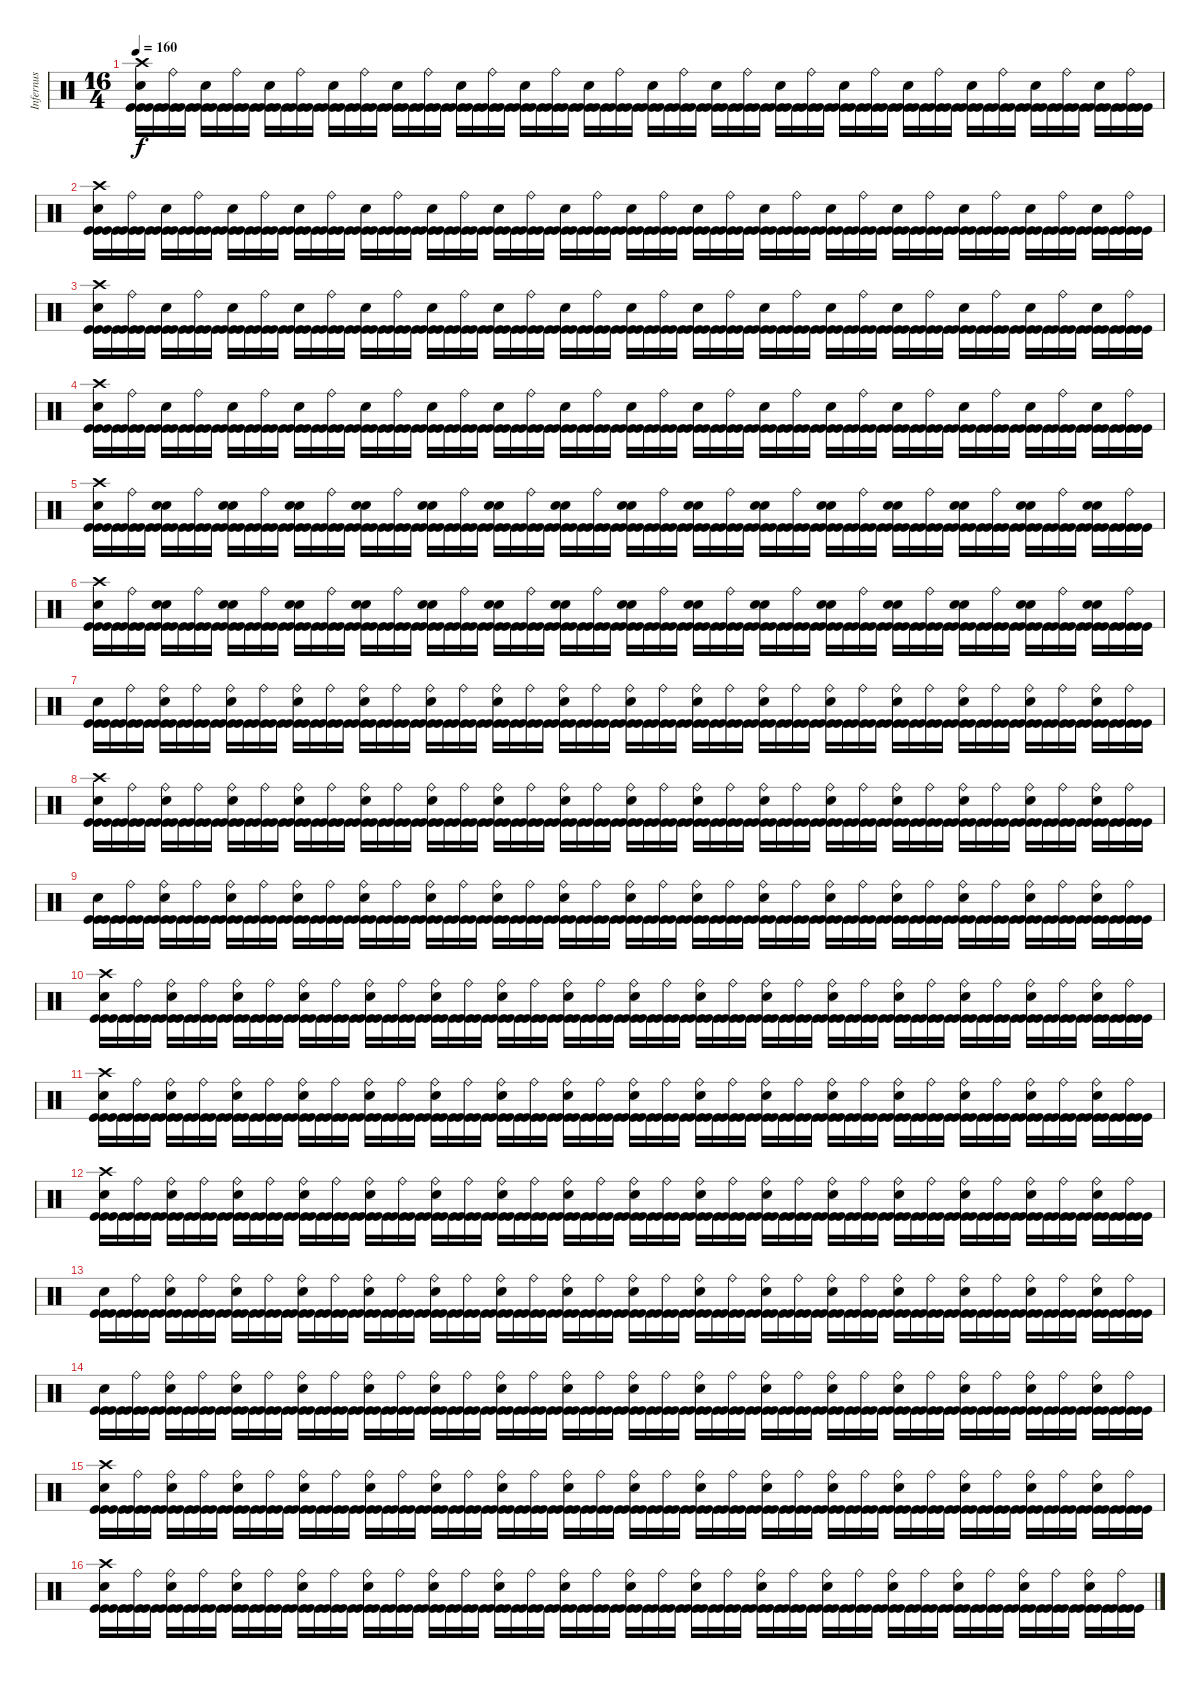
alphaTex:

\track ("Infernus" "Infernus") {instrument percussion}
\staff {score}
\articulation defaults
\ts (16 4)
\tempo 160
\clef neutral
\ks c
("Crash high (hit)" "Snare (hit) 2" "Kick (hit)" "Kick (hit)").16{dy f} ("Kick (hit)" "Kick (hit)").16 ("Ride (bell)" "Kick (hit)" "Kick (hit)").16 ("Kick (hit)" "Kick (hit)").16 ("Snare (hit) 2" "Kick (hit)" "Kick (hit)").16 ("Kick (hit)" "Kick (hit)").16 ("Ride (bell)" "Kick (hit)" "Kick (hit)").16 ("Kick (hit)" "Kick (hit)").16 ("Snare (hit) 2" "Kick (hit)" "Kick (hit)").16 ("Kick (hit)" "Kick (hit)").16 ("Ride (bell)" "Kick (hit)" "Kick (hit)").16 ("Kick (hit)" "Kick (hit)").16 ("Snare (hit) 2" "Kick (hit)" "Kick (hit)").16 ("Kick (hit)" "Kick (hit)").16 ("Ride (bell)" "Kick (hit)" "Kick (hit)").16 ("Kick (hit)" "Kick (hit)").16 ("Snare (hit) 2" "Kick (hit)" "Kick (hit)").16 ("Kick (hit)" "Kick (hit)").16 ("Ride (bell)" "Kick (hit)" "Kick (hit)").16 ("Kick (hit)" "Kick (hit)").16 ("Snare (hit) 2" "Kick (hit)" "Kick (hit)").16 ("Kick (hit)" "Kick (hit)").16 ("Ride (bell)" "Kick (hit)" "Kick (hit)").16 ("Kick (hit)" "Kick (hit)").16 ("Snare (hit) 2" "Kick (hit)" "Kick (hit)").16 ("Kick (hit)" "Kick (hit)").16 ("Ride (bell)" "Kick (hit)" "Kick (hit)").16 ("Kick (hit)" "Kick (hit)").16 ("Snare (hit) 2" "Kick (hit)" "Kick (hit)").16 ("Kick (hit)" "Kick (hit)").16 ("Ride (bell)" "Kick (hit)" "Kick (hit)").16 ("Kick (hit)" "Kick (hit)").16 ("Snare (hit) 2" "Kick (hit)" "Kick (hit)").16 ("Kick (hit)" "Kick (hit)").16 ("Ride (bell)" "Kick (hit)" "Kick (hit)").16 ("Kick (hit)" "Kick (hit)").16 ("Snare (hit) 2" "Kick (hit)" "Kick (hit)").16 ("Kick (hit)" "Kick (hit)").16 ("Ride (bell)" "Kick (hit)" "Kick (hit)").16 ("Kick (hit)" "Kick (hit)").16 ("Snare (hit) 2" "Kick (hit)" "Kick (hit)").16 ("Kick (hit)" "Kick (hit)").16 ("Ride (bell)" "Kick (hit)" "Kick (hit)").16 ("Kick (hit)" "Kick (hit)").16 ("Snare (hit) 2" "Kick (hit)" "Kick (hit)").16 ("Kick (hit)" "Kick (hit)").16 ("Ride (bell)" "Kick (hit)" "Kick (hit)").16 ("Kick (hit)" "Kick (hit)").16 ("Snare (hit) 2" "Kick (hit)" "Kick (hit)").16 ("Kick (hit)" "Kick (hit)").16 ("Ride (bell)" "Kick (hit)" "Kick (hit)").16 ("Kick (hit)" "Kick (hit)").16 ("Snare (hit) 2" "Kick (hit)" "Kick (hit)").16 ("Kick (hit)" "Kick (hit)").16 ("Ride (bell)" "Kick (hit)" "Kick (hit)").16 ("Kick (hit)" "Kick (hit)").16 ("Snare (hit) 2" "Kick (hit)" "Kick (hit)").16 ("Kick (hit)" "Kick (hit)").16 ("Ride (bell)" "Kick (hit)" "Kick (hit)").16 ("Kick (hit)" "Kick (hit)").16 ("Snare (hit) 2" "Kick (hit)" "Kick (hit)").16 ("Kick (hit)" "Kick (hit)").16 ("Ride (bell)" "Kick (hit)" "Kick (hit)").16 ("Kick (hit)" "Kick (hit)").16 |
("Crash high (hit)" "Snare (hit) 2" "Kick (hit)" "Kick (hit)").16 ("Kick (hit)" "Kick (hit)").16 ("Ride (bell)" "Kick (hit)" "Kick (hit)").16 ("Kick (hit)" "Kick (hit)").16 ("Snare (hit) 2" "Kick (hit)" "Kick (hit)").16 ("Kick (hit)" "Kick (hit)").16 ("Ride (bell)" "Kick (hit)" "Kick (hit)").16 ("Kick (hit)" "Kick (hit)").16 ("Snare (hit) 2" "Kick (hit)" "Kick (hit)").16 ("Kick (hit)" "Kick (hit)").16 ("Ride (bell)" "Kick (hit)" "Kick (hit)").16 ("Kick (hit)" "Kick (hit)").16 ("Snare (hit) 2" "Kick (hit)" "Kick (hit)").16 ("Kick (hit)" "Kick (hit)").16 ("Ride (bell)" "Kick (hit)" "Kick (hit)").16 ("Kick (hit)" "Kick (hit)").16 ("Snare (hit) 2" "Kick (hit)" "Kick (hit)").16 ("Kick (hit)" "Kick (hit)").16 ("Ride (bell)" "Kick (hit)" "Kick (hit)").16 ("Kick (hit)" "Kick (hit)").16 ("Snare (hit) 2" "Kick (hit)" "Kick (hit)").16 ("Kick (hit)" "Kick (hit)").16 ("Ride (bell)" "Kick (hit)" "Kick (hit)").16 ("Kick (hit)" "Kick (hit)").16 ("Snare (hit) 2" "Kick (hit)" "Kick (hit)").16 ("Kick (hit)" "Kick (hit)").16 ("Ride (bell)" "Kick (hit)" "Kick (hit)").16 ("Kick (hit)" "Kick (hit)").16 ("Snare (hit) 2" "Kick (hit)" "Kick (hit)").16 ("Kick (hit)" "Kick (hit)").16 ("Ride (bell)" "Kick (hit)" "Kick (hit)").16 ("Kick (hit)" "Kick (hit)").16 ("Snare (hit) 2" "Kick (hit)" "Kick (hit)").16 ("Kick (hit)" "Kick (hit)").16 ("Ride (bell)" "Kick (hit)" "Kick (hit)").16 ("Kick (hit)" "Kick (hit)").16 ("Snare (hit) 2" "Kick (hit)" "Kick (hit)").16 ("Kick (hit)" "Kick (hit)").16 ("Ride (bell)" "Kick (hit)" "Kick (hit)").16 ("Kick (hit)" "Kick (hit)").16 ("Snare (hit) 2" "Kick (hit)" "Kick (hit)").16 ("Kick (hit)" "Kick (hit)").16 ("Ride (bell)" "Kick (hit)" "Kick (hit)").16 ("Kick (hit)" "Kick (hit)").16 ("Snare (hit) 2" "Kick (hit)" "Kick (hit)").16 ("Kick (hit)" "Kick (hit)").16 ("Ride (bell)" "Kick (hit)" "Kick (hit)").16 ("Kick (hit)" "Kick (hit)").16 ("Snare (hit) 2" "Kick (hit)" "Kick (hit)").16 ("Kick (hit)" "Kick (hit)").16 ("Ride (bell)" "Kick (hit)" "Kick (hit)").16 ("Kick (hit)" "Kick (hit)").16 ("Snare (hit) 2" "Kick (hit)" "Kick (hit)").16 ("Kick (hit)" "Kick (hit)").16 ("Ride (bell)" "Kick (hit)" "Kick (hit)").16 ("Kick (hit)" "Kick (hit)").16 ("Snare (hit) 2" "Kick (hit)" "Kick (hit)").16 ("Kick (hit)" "Kick (hit)").16 ("Ride (bell)" "Kick (hit)" "Kick (hit)").16 ("Kick (hit)" "Kick (hit)").16 ("Snare (hit) 2" "Kick (hit)" "Kick (hit)").16 ("Kick (hit)" "Kick (hit)").16 ("Ride (bell)" "Kick (hit)" "Kick (hit)").16 ("Kick (hit)" "Kick (hit)").16 |
("Crash high (hit)" "Snare (hit) 2" "Kick (hit)" "Kick (hit)").16 ("Kick (hit)" "Kick (hit)").16 ("Ride (bell)" "Kick (hit)" "Kick (hit)").16 ("Kick (hit)" "Kick (hit)").16 ("Snare (hit) 2" "Kick (hit)" "Kick (hit)").16 ("Kick (hit)" "Kick (hit)").16 ("Ride (bell)" "Kick (hit)" "Kick (hit)").16 ("Kick (hit)" "Kick (hit)").16 ("Snare (hit) 2" "Kick (hit)" "Kick (hit)").16 ("Kick (hit)" "Kick (hit)").16 ("Ride (bell)" "Kick (hit)" "Kick (hit)").16 ("Kick (hit)" "Kick (hit)").16 ("Snare (hit) 2" "Kick (hit)" "Kick (hit)").16 ("Kick (hit)" "Kick (hit)").16 ("Ride (bell)" "Kick (hit)" "Kick (hit)").16 ("Kick (hit)" "Kick (hit)").16 ("Snare (hit) 2" "Kick (hit)" "Kick (hit)").16 ("Kick (hit)" "Kick (hit)").16 ("Ride (bell)" "Kick (hit)" "Kick (hit)").16 ("Kick (hit)" "Kick (hit)").16 ("Snare (hit) 2" "Kick (hit)" "Kick (hit)").16 ("Kick (hit)" "Kick (hit)").16 ("Ride (bell)" "Kick (hit)" "Kick (hit)").16 ("Kick (hit)" "Kick (hit)").16 ("Snare (hit) 2" "Kick (hit)" "Kick (hit)").16 ("Kick (hit)" "Kick (hit)").16 ("Ride (bell)" "Kick (hit)" "Kick (hit)").16 ("Kick (hit)" "Kick (hit)").16 ("Snare (hit) 2" "Kick (hit)" "Kick (hit)").16 ("Kick (hit)" "Kick (hit)").16 ("Ride (bell)" "Kick (hit)" "Kick (hit)").16 ("Kick (hit)" "Kick (hit)").16 ("Snare (hit) 2" "Kick (hit)" "Kick (hit)").16 ("Kick (hit)" "Kick (hit)").16 ("Ride (bell)" "Kick (hit)" "Kick (hit)").16 ("Kick (hit)" "Kick (hit)").16 ("Snare (hit) 2" "Kick (hit)" "Kick (hit)").16 ("Kick (hit)" "Kick (hit)").16 ("Ride (bell)" "Kick (hit)" "Kick (hit)").16 ("Kick (hit)" "Kick (hit)").16 ("Snare (hit) 2" "Kick (hit)" "Kick (hit)").16 ("Kick (hit)" "Kick (hit)").16 ("Ride (bell)" "Kick (hit)" "Kick (hit)").16 ("Kick (hit)" "Kick (hit)").16 ("Snare (hit) 2" "Kick (hit)" "Kick (hit)").16 ("Kick (hit)" "Kick (hit)").16 ("Ride (bell)" "Kick (hit)" "Kick (hit)").16 ("Kick (hit)" "Kick (hit)").16 ("Snare (hit) 2" "Kick (hit)" "Kick (hit)").16 ("Kick (hit)" "Kick (hit)").16 ("Ride (bell)" "Kick (hit)" "Kick (hit)").16 ("Kick (hit)" "Kick (hit)").16 ("Snare (hit) 2" "Kick (hit)" "Kick (hit)").16 ("Kick (hit)" "Kick (hit)").16 ("Ride (bell)" "Kick (hit)" "Kick (hit)").16 ("Kick (hit)" "Kick (hit)").16 ("Snare (hit) 2" "Kick (hit)" "Kick (hit)").16 ("Kick (hit)" "Kick (hit)").16 ("Ride (bell)" "Kick (hit)" "Kick (hit)").16 ("Kick (hit)" "Kick (hit)").16 ("Snare (hit) 2" "Kick (hit)" "Kick (hit)").16 ("Kick (hit)" "Kick (hit)").16 ("Ride (bell)" "Kick (hit)" "Kick (hit)").16 ("Kick (hit)" "Kick (hit)").16 |
("Crash high (hit)" "Snare (hit) 2" "Kick (hit)" "Kick (hit)").16 ("Kick (hit)" "Kick (hit)").16 ("Ride (bell)" "Kick (hit)" "Kick (hit)").16 ("Kick (hit)" "Kick (hit)").16 ("Snare (hit) 2" "Kick (hit)" "Kick (hit)").16 ("Kick (hit)" "Kick (hit)").16 ("Ride (bell)" "Kick (hit)" "Kick (hit)").16 ("Kick (hit)" "Kick (hit)").16 ("Snare (hit) 2" "Kick (hit)" "Kick (hit)").16 ("Kick (hit)" "Kick (hit)").16 ("Ride (bell)" "Kick (hit)" "Kick (hit)").16 ("Kick (hit)" "Kick (hit)").16 ("Snare (hit) 2" "Kick (hit)" "Kick (hit)").16 ("Kick (hit)" "Kick (hit)").16 ("Ride (bell)" "Kick (hit)" "Kick (hit)").16 ("Kick (hit)" "Kick (hit)").16 ("Snare (hit) 2" "Kick (hit)" "Kick (hit)").16 ("Kick (hit)" "Kick (hit)").16 ("Ride (bell)" "Kick (hit)" "Kick (hit)").16 ("Kick (hit)" "Kick (hit)").16 ("Snare (hit) 2" "Kick (hit)" "Kick (hit)").16 ("Kick (hit)" "Kick (hit)").16 ("Ride (bell)" "Kick (hit)" "Kick (hit)").16 ("Kick (hit)" "Kick (hit)").16 ("Snare (hit) 2" "Kick (hit)" "Kick (hit)").16 ("Kick (hit)" "Kick (hit)").16 ("Ride (bell)" "Kick (hit)" "Kick (hit)").16 ("Kick (hit)" "Kick (hit)").16 ("Snare (hit) 2" "Kick (hit)" "Kick (hit)").16 ("Kick (hit)" "Kick (hit)").16 ("Ride (bell)" "Kick (hit)" "Kick (hit)").16 ("Kick (hit)" "Kick (hit)").16 ("Snare (hit) 2" "Kick (hit)" "Kick (hit)").16 ("Kick (hit)" "Kick (hit)").16 ("Ride (bell)" "Kick (hit)" "Kick (hit)").16 ("Kick (hit)" "Kick (hit)").16 ("Snare (hit) 2" "Kick (hit)" "Kick (hit)").16 ("Kick (hit)" "Kick (hit)").16 ("Ride (bell)" "Kick (hit)" "Kick (hit)").16 ("Kick (hit)" "Kick (hit)").16 ("Snare (hit) 2" "Kick (hit)" "Kick (hit)").16 ("Kick (hit)" "Kick (hit)").16 ("Ride (bell)" "Kick (hit)" "Kick (hit)").16 ("Kick (hit)" "Kick (hit)").16 ("Snare (hit) 2" "Kick (hit)" "Kick (hit)").16 ("Kick (hit)" "Kick (hit)").16 ("Ride (bell)" "Kick (hit)" "Kick (hit)").16 ("Kick (hit)" "Kick (hit)").16 ("Snare (hit) 2" "Kick (hit)" "Kick (hit)").16 ("Kick (hit)" "Kick (hit)").16 ("Ride (bell)" "Kick (hit)" "Kick (hit)").16 ("Kick (hit)" "Kick (hit)").16 ("Snare (hit) 2" "Kick (hit)" "Kick (hit)").16 ("Kick (hit)" "Kick (hit)").16 ("Ride (bell)" "Kick (hit)" "Kick (hit)").16 ("Kick (hit)" "Kick (hit)").16 ("Snare (hit) 2" "Kick (hit)" "Kick (hit)").16 ("Kick (hit)" "Kick (hit)").16 ("Ride (bell)" "Kick (hit)" "Kick (hit)").16 ("Kick (hit)" "Kick (hit)").16 ("Snare (hit) 2" "Kick (hit)" "Kick (hit)").16 ("Kick (hit)" "Kick (hit)").16 ("Ride (bell)" "Kick (hit)" "Kick (hit)").16 ("Kick (hit)" "Kick (hit)").16 |
("Crash high (hit)" "Snare (hit) 2" "Kick (hit)" "Kick (hit)").16 ("Kick (hit)" "Kick (hit)").16 ("Ride (bell)" "Kick (hit)" "Kick (hit)").16 ("Kick (hit)" "Kick (hit)").16 ("Snare (hit) 2" "Snare (hit) 2" "Kick (hit)" "Kick (hit)").16 ("Kick (hit)" "Kick (hit)").16 ("Ride (bell)" "Kick (hit)" "Kick (hit)").16 ("Kick (hit)" "Kick (hit)").16 ("Snare (hit) 2" "Snare (hit) 2" "Kick (hit)" "Kick (hit)").16 ("Kick (hit)" "Kick (hit)").16 ("Ride (bell)" "Kick (hit)" "Kick (hit)").16 ("Kick (hit)" "Kick (hit)").16 ("Snare (hit) 2" "Snare (hit) 2" "Kick (hit)" "Kick (hit)").16 ("Kick (hit)" "Kick (hit)").16 ("Ride (bell)" "Kick (hit)" "Kick (hit)").16 ("Kick (hit)" "Kick (hit)").16 ("Snare (hit) 2" "Snare (hit) 2" "Kick (hit)" "Kick (hit)").16 ("Kick (hit)" "Kick (hit)").16 ("Ride (bell)" "Kick (hit)" "Kick (hit)").16 ("Kick (hit)" "Kick (hit)").16 ("Snare (hit) 2" "Snare (hit) 2" "Kick (hit)" "Kick (hit)").16 ("Kick (hit)" "Kick (hit)").16 ("Ride (bell)" "Kick (hit)" "Kick (hit)").16 ("Kick (hit)" "Kick (hit)").16 ("Snare (hit) 2" "Snare (hit) 2" "Kick (hit)" "Kick (hit)").16 ("Kick (hit)" "Kick (hit)").16 ("Ride (bell)" "Kick (hit)" "Kick (hit)").16 ("Kick (hit)" "Kick (hit)").16 ("Snare (hit) 2" "Snare (hit) 2" "Kick (hit)" "Kick (hit)").16 ("Kick (hit)" "Kick (hit)").16 ("Ride (bell)" "Kick (hit)" "Kick (hit)").16 ("Kick (hit)" "Kick (hit)").16 ("Snare (hit) 2" "Snare (hit) 2" "Kick (hit)" "Kick (hit)").16 ("Kick (hit)" "Kick (hit)").16 ("Ride (bell)" "Kick (hit)" "Kick (hit)").16 ("Kick (hit)" "Kick (hit)").16 ("Snare (hit) 2" "Snare (hit) 2" "Kick (hit)" "Kick (hit)").16 ("Kick (hit)" "Kick (hit)").16 ("Ride (bell)" "Kick (hit)" "Kick (hit)").16 ("Kick (hit)" "Kick (hit)").16 ("Snare (hit) 2" "Snare (hit) 2" "Kick (hit)" "Kick (hit)").16 ("Kick (hit)" "Kick (hit)").16 ("Ride (bell)" "Kick (hit)" "Kick (hit)").16 ("Kick (hit)" "Kick (hit)").16 ("Snare (hit) 2" "Snare (hit) 2" "Kick (hit)" "Kick (hit)").16 ("Kick (hit)" "Kick (hit)").16 ("Ride (bell)" "Kick (hit)" "Kick (hit)").16 ("Kick (hit)" "Kick (hit)").16 ("Snare (hit) 2" "Snare (hit) 2" "Kick (hit)" "Kick (hit)").16 ("Kick (hit)" "Kick (hit)").16 ("Ride (bell)" "Kick (hit)" "Kick (hit)").16 ("Kick (hit)" "Kick (hit)").16 ("Snare (hit) 2" "Snare (hit) 2" "Kick (hit)" "Kick (hit)").16 ("Kick (hit)" "Kick (hit)").16 ("Ride (bell)" "Kick (hit)" "Kick (hit)").16 ("Kick (hit)" "Kick (hit)").16 ("Snare (hit) 2" "Snare (hit) 2" "Kick (hit)" "Kick (hit)").16 ("Kick (hit)" "Kick (hit)").16 ("Ride (bell)" "Kick (hit)" "Kick (hit)").16 ("Kick (hit)" "Kick (hit)").16 ("Snare (hit) 2" "Snare (hit) 2" "Kick (hit)" "Kick (hit)").16 ("Kick (hit)" "Kick (hit)").16 ("Ride (bell)" "Kick (hit)" "Kick (hit)").16 ("Kick (hit)" "Kick (hit)").16 |
("Crash high (hit)" "Snare (hit) 2" "Kick (hit)" "Kick (hit)").16 ("Kick (hit)" "Kick (hit)").16 ("Ride (bell)" "Kick (hit)" "Kick (hit)").16 ("Kick (hit)" "Kick (hit)").16 ("Snare (hit) 2" "Snare (hit) 2" "Kick (hit)" "Kick (hit)").16 ("Kick (hit)" "Kick (hit)").16 ("Ride (bell)" "Kick (hit)" "Kick (hit)").16 ("Kick (hit)" "Kick (hit)").16 ("Snare (hit) 2" "Snare (hit) 2" "Kick (hit)" "Kick (hit)").16 ("Kick (hit)" "Kick (hit)").16 ("Ride (bell)" "Kick (hit)" "Kick (hit)").16 ("Kick (hit)" "Kick (hit)").16 ("Snare (hit) 2" "Snare (hit) 2" "Kick (hit)" "Kick (hit)").16 ("Kick (hit)" "Kick (hit)").16 ("Ride (bell)" "Kick (hit)" "Kick (hit)").16 ("Kick (hit)" "Kick (hit)").16 ("Snare (hit) 2" "Snare (hit) 2" "Kick (hit)" "Kick (hit)").16 ("Kick (hit)" "Kick (hit)").16 ("Ride (bell)" "Kick (hit)" "Kick (hit)").16 ("Kick (hit)" "Kick (hit)").16 ("Snare (hit) 2" "Snare (hit) 2" "Kick (hit)" "Kick (hit)").16 ("Kick (hit)" "Kick (hit)").16 ("Ride (bell)" "Kick (hit)" "Kick (hit)").16 ("Kick (hit)" "Kick (hit)").16 ("Snare (hit) 2" "Snare (hit) 2" "Kick (hit)" "Kick (hit)").16 ("Kick (hit)" "Kick (hit)").16 ("Ride (bell)" "Kick (hit)" "Kick (hit)").16 ("Kick (hit)" "Kick (hit)").16 ("Snare (hit) 2" "Snare (hit) 2" "Kick (hit)" "Kick (hit)").16 ("Kick (hit)" "Kick (hit)").16 ("Ride (bell)" "Kick (hit)" "Kick (hit)").16 ("Kick (hit)" "Kick (hit)").16 ("Snare (hit) 2" "Snare (hit) 2" "Kick (hit)" "Kick (hit)").16 ("Kick (hit)" "Kick (hit)").16 ("Ride (bell)" "Kick (hit)" "Kick (hit)").16 ("Kick (hit)" "Kick (hit)").16 ("Snare (hit) 2" "Snare (hit) 2" "Kick (hit)" "Kick (hit)").16 ("Kick (hit)" "Kick (hit)").16 ("Ride (bell)" "Kick (hit)" "Kick (hit)").16 ("Kick (hit)" "Kick (hit)").16 ("Snare (hit) 2" "Snare (hit) 2" "Kick (hit)" "Kick (hit)").16 ("Kick (hit)" "Kick (hit)").16 ("Ride (bell)" "Kick (hit)" "Kick (hit)").16 ("Kick (hit)" "Kick (hit)").16 ("Snare (hit) 2" "Snare (hit) 2" "Kick (hit)" "Kick (hit)").16 ("Kick (hit)" "Kick (hit)").16 ("Ride (bell)" "Kick (hit)" "Kick (hit)").16 ("Kick (hit)" "Kick (hit)").16 ("Snare (hit) 2" "Snare (hit) 2" "Kick (hit)" "Kick (hit)").16 ("Kick (hit)" "Kick (hit)").16 ("Ride (bell)" "Kick (hit)" "Kick (hit)").16 ("Kick (hit)" "Kick (hit)").16 ("Snare (hit) 2" "Snare (hit) 2" "Kick (hit)" "Kick (hit)").16 ("Kick (hit)" "Kick (hit)").16 ("Ride (bell)" "Kick (hit)" "Kick (hit)").16 ("Kick (hit)" "Kick (hit)").16 ("Snare (hit) 2" "Snare (hit) 2" "Kick (hit)" "Kick (hit)").16 ("Kick (hit)" "Kick (hit)").16 ("Ride (bell)" "Kick (hit)" "Kick (hit)").16 ("Kick (hit)" "Kick (hit)").16 ("Snare (hit) 2" "Snare (hit) 2" "Kick (hit)" "Kick (hit)").16 ("Kick (hit)" "Kick (hit)").16 ("Ride (bell)" "Kick (hit)" "Kick (hit)").16 ("Kick (hit)" "Kick (hit)").16 |
("Snare (hit) 2" "Kick (hit)" "Kick (hit)").16 ("Kick (hit)" "Kick (hit)").16 ("Ride (bell)" "Kick (hit)" "Kick (hit)").16 ("Kick (hit)" "Kick (hit)").16 ("Ride (bell)" "Snare (hit) 2" "Kick (hit)" "Kick (hit)").16 ("Kick (hit)" "Kick (hit)").16 ("Ride (bell)" "Kick (hit)" "Kick (hit)").16 ("Kick (hit)" "Kick (hit)").16 ("Ride (bell)" "Snare (hit) 2" "Kick (hit)" "Kick (hit)").16 ("Kick (hit)" "Kick (hit)").16 ("Ride (bell)" "Kick (hit)" "Kick (hit)").16 ("Kick (hit)" "Kick (hit)").16 ("Ride (bell)" "Snare (hit) 2" "Kick (hit)" "Kick (hit)").16 ("Kick (hit)" "Kick (hit)").16 ("Ride (bell)" "Kick (hit)" "Kick (hit)").16 ("Kick (hit)" "Kick (hit)").16 ("Ride (bell)" "Snare (hit) 2" "Kick (hit)" "Kick (hit)").16 ("Kick (hit)" "Kick (hit)").16 ("Ride (bell)" "Kick (hit)" "Kick (hit)").16 ("Kick (hit)" "Kick (hit)").16 ("Ride (bell)" "Snare (hit) 2" "Kick (hit)" "Kick (hit)").16 ("Kick (hit)" "Kick (hit)").16 ("Ride (bell)" "Kick (hit)" "Kick (hit)").16 ("Kick (hit)" "Kick (hit)").16 ("Ride (bell)" "Snare (hit) 2" "Kick (hit)" "Kick (hit)").16 ("Kick (hit)" "Kick (hit)").16 ("Ride (bell)" "Kick (hit)" "Kick (hit)").16 ("Kick (hit)" "Kick (hit)").16 ("Ride (bell)" "Snare (hit) 2" "Kick (hit)" "Kick (hit)").16 ("Kick (hit)" "Kick (hit)").16 ("Ride (bell)" "Kick (hit)" "Kick (hit)").16 ("Kick (hit)" "Kick (hit)").16 ("Ride (bell)" "Snare (hit) 2" "Kick (hit)" "Kick (hit)").16 ("Kick (hit)" "Kick (hit)").16 ("Ride (bell)" "Kick (hit)" "Kick (hit)").16 ("Kick (hit)" "Kick (hit)").16 ("Ride (bell)" "Snare (hit) 2" "Kick (hit)" "Kick (hit)").16 ("Kick (hit)" "Kick (hit)").16 ("Ride (bell)" "Kick (hit)" "Kick (hit)").16 ("Kick (hit)" "Kick (hit)").16 ("Ride (bell)" "Snare (hit) 2" "Kick (hit)" "Kick (hit)").16 ("Kick (hit)" "Kick (hit)").16 ("Ride (bell)" "Kick (hit)" "Kick (hit)").16 ("Kick (hit)" "Kick (hit)").16 ("Ride (bell)" "Snare (hit) 2" "Kick (hit)" "Kick (hit)").16 ("Kick (hit)" "Kick (hit)").16 ("Ride (bell)" "Kick (hit)" "Kick (hit)").16 ("Kick (hit)" "Kick (hit)").16 ("Ride (bell)" "Snare (hit) 2" "Kick (hit)" "Kick (hit)").16 ("Kick (hit)" "Kick (hit)").16 ("Ride (bell)" "Kick (hit)" "Kick (hit)").16 ("Kick (hit)" "Kick (hit)").16 ("Ride (bell)" "Snare (hit) 2" "Kick (hit)" "Kick (hit)").16 ("Kick (hit)" "Kick (hit)").16 ("Ride (bell)" "Kick (hit)" "Kick (hit)").16 ("Kick (hit)" "Kick (hit)").16 ("Ride (bell)" "Snare (hit) 2" "Kick (hit)" "Kick (hit)").16 ("Kick (hit)" "Kick (hit)").16 ("Ride (bell)" "Kick (hit)" "Kick (hit)").16 ("Kick (hit)" "Kick (hit)").16 ("Ride (bell)" "Snare (hit) 2" "Kick (hit)" "Kick (hit)").16 ("Kick (hit)" "Kick (hit)").16 ("Ride (bell)" "Kick (hit)" "Kick (hit)").16 ("Kick (hit)" "Kick (hit)").16 |
("Crash high (hit)" "Snare (hit) 2" "Kick (hit)" "Kick (hit)").16 ("Kick (hit)" "Kick (hit)").16 ("Ride (bell)" "Kick (hit)" "Kick (hit)").16 ("Kick (hit)" "Kick (hit)").16 ("Ride (bell)" "Snare (hit) 2" "Kick (hit)" "Kick (hit)").16 ("Kick (hit)" "Kick (hit)").16 ("Ride (bell)" "Kick (hit)" "Kick (hit)").16 ("Kick (hit)" "Kick (hit)").16 ("Ride (bell)" "Snare (hit) 2" "Kick (hit)" "Kick (hit)").16 ("Kick (hit)" "Kick (hit)").16 ("Ride (bell)" "Kick (hit)" "Kick (hit)").16 ("Kick (hit)" "Kick (hit)").16 ("Ride (bell)" "Snare (hit) 2" "Kick (hit)" "Kick (hit)").16 ("Kick (hit)" "Kick (hit)").16 ("Ride (bell)" "Kick (hit)" "Kick (hit)").16 ("Kick (hit)" "Kick (hit)").16 ("Ride (bell)" "Snare (hit) 2" "Kick (hit)" "Kick (hit)").16 ("Kick (hit)" "Kick (hit)").16 ("Ride (bell)" "Kick (hit)" "Kick (hit)").16 ("Kick (hit)" "Kick (hit)").16 ("Ride (bell)" "Snare (hit) 2" "Kick (hit)" "Kick (hit)").16 ("Kick (hit)" "Kick (hit)").16 ("Ride (bell)" "Kick (hit)" "Kick (hit)").16 ("Kick (hit)" "Kick (hit)").16 ("Ride (bell)" "Snare (hit) 2" "Kick (hit)" "Kick (hit)").16 ("Kick (hit)" "Kick (hit)").16 ("Ride (bell)" "Kick (hit)" "Kick (hit)").16 ("Kick (hit)" "Kick (hit)").16 ("Ride (bell)" "Snare (hit) 2" "Kick (hit)" "Kick (hit)").16 ("Kick (hit)" "Kick (hit)").16 ("Ride (bell)" "Kick (hit)" "Kick (hit)").16 ("Kick (hit)" "Kick (hit)").16 ("Ride (bell)" "Snare (hit) 2" "Kick (hit)" "Kick (hit)").16 ("Kick (hit)" "Kick (hit)").16 ("Ride (bell)" "Kick (hit)" "Kick (hit)").16 ("Kick (hit)" "Kick (hit)").16 ("Ride (bell)" "Snare (hit) 2" "Kick (hit)" "Kick (hit)").16 ("Kick (hit)" "Kick (hit)").16 ("Ride (bell)" "Kick (hit)" "Kick (hit)").16 ("Kick (hit)" "Kick (hit)").16 ("Ride (bell)" "Snare (hit) 2" "Kick (hit)" "Kick (hit)").16 ("Kick (hit)" "Kick (hit)").16 ("Ride (bell)" "Kick (hit)" "Kick (hit)").16 ("Kick (hit)" "Kick (hit)").16 ("Ride (bell)" "Snare (hit) 2" "Kick (hit)" "Kick (hit)").16 ("Kick (hit)" "Kick (hit)").16 ("Ride (bell)" "Kick (hit)" "Kick (hit)").16 ("Kick (hit)" "Kick (hit)").16 ("Ride (bell)" "Snare (hit) 2" "Kick (hit)" "Kick (hit)").16 ("Kick (hit)" "Kick (hit)").16 ("Ride (bell)" "Kick (hit)" "Kick (hit)").16 ("Kick (hit)" "Kick (hit)").16 ("Ride (bell)" "Snare (hit) 2" "Kick (hit)" "Kick (hit)").16 ("Kick (hit)" "Kick (hit)").16 ("Ride (bell)" "Kick (hit)" "Kick (hit)").16 ("Kick (hit)" "Kick (hit)").16 ("Ride (bell)" "Snare (hit) 2" "Kick (hit)" "Kick (hit)").16 ("Kick (hit)" "Kick (hit)").16 ("Ride (bell)" "Kick (hit)" "Kick (hit)").16 ("Kick (hit)" "Kick (hit)").16 ("Ride (bell)" "Snare (hit) 2" "Kick (hit)" "Kick (hit)").16 ("Kick (hit)" "Kick (hit)").16 ("Ride (bell)" "Kick (hit)" "Kick (hit)").16 ("Kick (hit)" "Kick (hit)").16 |
("Snare (hit) 2" "Kick (hit)" "Kick (hit)").16 ("Kick (hit)" "Kick (hit)").16 ("Ride (bell)" "Kick (hit)" "Kick (hit)").16 ("Kick (hit)" "Kick (hit)").16 ("Ride (bell)" "Snare (hit) 2" "Kick (hit)" "Kick (hit)").16 ("Kick (hit)" "Kick (hit)").16 ("Ride (bell)" "Kick (hit)" "Kick (hit)").16 ("Kick (hit)" "Kick (hit)").16 ("Ride (bell)" "Snare (hit) 2" "Kick (hit)" "Kick (hit)").16 ("Kick (hit)" "Kick (hit)").16 ("Ride (bell)" "Kick (hit)" "Kick (hit)").16 ("Kick (hit)" "Kick (hit)").16 ("Ride (bell)" "Snare (hit) 2" "Kick (hit)" "Kick (hit)").16 ("Kick (hit)" "Kick (hit)").16 ("Ride (bell)" "Kick (hit)" "Kick (hit)").16 ("Kick (hit)" "Kick (hit)").16 ("Ride (bell)" "Snare (hit) 2" "Kick (hit)" "Kick (hit)").16 ("Kick (hit)" "Kick (hit)").16 ("Ride (bell)" "Kick (hit)" "Kick (hit)").16 ("Kick (hit)" "Kick (hit)").16 ("Ride (bell)" "Snare (hit) 2" "Kick (hit)" "Kick (hit)").16 ("Kick (hit)" "Kick (hit)").16 ("Ride (bell)" "Kick (hit)" "Kick (hit)").16 ("Kick (hit)" "Kick (hit)").16 ("Ride (bell)" "Snare (hit) 2" "Kick (hit)" "Kick (hit)").16 ("Kick (hit)" "Kick (hit)").16 ("Ride (bell)" "Kick (hit)" "Kick (hit)").16 ("Kick (hit)" "Kick (hit)").16 ("Ride (bell)" "Snare (hit) 2" "Kick (hit)" "Kick (hit)").16 ("Kick (hit)" "Kick (hit)").16 ("Ride (bell)" "Kick (hit)" "Kick (hit)").16 ("Kick (hit)" "Kick (hit)").16 ("Ride (bell)" "Snare (hit) 2" "Kick (hit)" "Kick (hit)").16 ("Kick (hit)" "Kick (hit)").16 ("Ride (bell)" "Kick (hit)" "Kick (hit)").16 ("Kick (hit)" "Kick (hit)").16 ("Ride (bell)" "Snare (hit) 2" "Kick (hit)" "Kick (hit)").16 ("Kick (hit)" "Kick (hit)").16 ("Ride (bell)" "Kick (hit)" "Kick (hit)").16 ("Kick (hit)" "Kick (hit)").16 ("Ride (bell)" "Snare (hit) 2" "Kick (hit)" "Kick (hit)").16 ("Kick (hit)" "Kick (hit)").16 ("Ride (bell)" "Kick (hit)" "Kick (hit)").16 ("Kick (hit)" "Kick (hit)").16 ("Ride (bell)" "Snare (hit) 2" "Kick (hit)" "Kick (hit)").16 ("Kick (hit)" "Kick (hit)").16 ("Ride (bell)" "Kick (hit)" "Kick (hit)").16 ("Kick (hit)" "Kick (hit)").16 ("Ride (bell)" "Snare (hit) 2" "Kick (hit)" "Kick (hit)").16 ("Kick (hit)" "Kick (hit)").16 ("Ride (bell)" "Kick (hit)" "Kick (hit)").16 ("Kick (hit)" "Kick (hit)").16 ("Ride (bell)" "Snare (hit) 2" "Kick (hit)" "Kick (hit)").16 ("Kick (hit)" "Kick (hit)").16 ("Ride (bell)" "Kick (hit)" "Kick (hit)").16 ("Kick (hit)" "Kick (hit)").16 ("Ride (bell)" "Snare (hit) 2" "Kick (hit)" "Kick (hit)").16 ("Kick (hit)" "Kick (hit)").16 ("Ride (bell)" "Kick (hit)" "Kick (hit)").16 ("Kick (hit)" "Kick (hit)").16 ("Ride (bell)" "Snare (hit) 2" "Kick (hit)" "Kick (hit)").16 ("Kick (hit)" "Kick (hit)").16 ("Ride (bell)" "Kick (hit)" "Kick (hit)").16 ("Kick (hit)" "Kick (hit)").16 |
("Crash high (hit)" "Snare (hit) 2" "Kick (hit)" "Kick (hit)").16 ("Kick (hit)" "Kick (hit)").16 ("Ride (bell)" "Kick (hit)" "Kick (hit)").16 ("Kick (hit)" "Kick (hit)").16 ("Ride (bell)" "Snare (hit) 2" "Kick (hit)" "Kick (hit)").16 ("Kick (hit)" "Kick (hit)").16 ("Ride (bell)" "Kick (hit)" "Kick (hit)").16 ("Kick (hit)" "Kick (hit)").16 ("Ride (bell)" "Snare (hit) 2" "Kick (hit)" "Kick (hit)").16 ("Kick (hit)" "Kick (hit)").16 ("Ride (bell)" "Kick (hit)" "Kick (hit)").16 ("Kick (hit)" "Kick (hit)").16 ("Ride (bell)" "Snare (hit) 2" "Kick (hit)" "Kick (hit)").16 ("Kick (hit)" "Kick (hit)").16 ("Ride (bell)" "Kick (hit)" "Kick (hit)").16 ("Kick (hit)" "Kick (hit)").16 ("Ride (bell)" "Snare (hit) 2" "Kick (hit)" "Kick (hit)").16 ("Kick (hit)" "Kick (hit)").16 ("Ride (bell)" "Kick (hit)" "Kick (hit)").16 ("Kick (hit)" "Kick (hit)").16 ("Ride (bell)" "Snare (hit) 2" "Kick (hit)" "Kick (hit)").16 ("Kick (hit)" "Kick (hit)").16 ("Ride (bell)" "Kick (hit)" "Kick (hit)").16 ("Kick (hit)" "Kick (hit)").16 ("Ride (bell)" "Snare (hit) 2" "Kick (hit)" "Kick (hit)").16 ("Kick (hit)" "Kick (hit)").16 ("Ride (bell)" "Kick (hit)" "Kick (hit)").16 ("Kick (hit)" "Kick (hit)").16 ("Ride (bell)" "Snare (hit) 2" "Kick (hit)" "Kick (hit)").16 ("Kick (hit)" "Kick (hit)").16 ("Ride (bell)" "Kick (hit)" "Kick (hit)").16 ("Kick (hit)" "Kick (hit)").16 ("Ride (bell)" "Snare (hit) 2" "Kick (hit)" "Kick (hit)").16 ("Kick (hit)" "Kick (hit)").16 ("Ride (bell)" "Kick (hit)" "Kick (hit)").16 ("Kick (hit)" "Kick (hit)").16 ("Ride (bell)" "Snare (hit) 2" "Kick (hit)" "Kick (hit)").16 ("Kick (hit)" "Kick (hit)").16 ("Ride (bell)" "Kick (hit)" "Kick (hit)").16 ("Kick (hit)" "Kick (hit)").16 ("Ride (bell)" "Snare (hit) 2" "Kick (hit)" "Kick (hit)").16 ("Kick (hit)" "Kick (hit)").16 ("Ride (bell)" "Kick (hit)" "Kick (hit)").16 ("Kick (hit)" "Kick (hit)").16 ("Ride (bell)" "Snare (hit) 2" "Kick (hit)" "Kick (hit)").16 ("Kick (hit)" "Kick (hit)").16 ("Ride (bell)" "Kick (hit)" "Kick (hit)").16 ("Kick (hit)" "Kick (hit)").16 ("Ride (bell)" "Snare (hit) 2" "Kick (hit)" "Kick (hit)").16 ("Kick (hit)" "Kick (hit)").16 ("Ride (bell)" "Kick (hit)" "Kick (hit)").16 ("Kick (hit)" "Kick (hit)").16 ("Ride (bell)" "Snare (hit) 2" "Kick (hit)" "Kick (hit)").16 ("Kick (hit)" "Kick (hit)").16 ("Ride (bell)" "Kick (hit)" "Kick (hit)").16 ("Kick (hit)" "Kick (hit)").16 ("Ride (bell)" "Snare (hit) 2" "Kick (hit)" "Kick (hit)").16 ("Kick (hit)" "Kick (hit)").16 ("Ride (bell)" "Kick (hit)" "Kick (hit)").16 ("Kick (hit)" "Kick (hit)").16 ("Ride (bell)" "Snare (hit) 2" "Kick (hit)" "Kick (hit)").16 ("Kick (hit)" "Kick (hit)").16 ("Ride (bell)" "Kick (hit)" "Kick (hit)").16 ("Kick (hit)" "Kick (hit)").16 |
("Crash high (hit)" "Snare (hit) 2" "Kick (hit)" "Kick (hit)").16 ("Kick (hit)" "Kick (hit)").16 ("Ride (bell)" "Kick (hit)" "Kick (hit)").16 ("Kick (hit)" "Kick (hit)").16 ("Ride (bell)" "Snare (hit) 2" "Kick (hit)" "Kick (hit)").16 ("Kick (hit)" "Kick (hit)").16 ("Ride (bell)" "Kick (hit)" "Kick (hit)").16 ("Kick (hit)" "Kick (hit)").16 ("Ride (bell)" "Snare (hit) 2" "Kick (hit)" "Kick (hit)").16 ("Kick (hit)" "Kick (hit)").16 ("Ride (bell)" "Kick (hit)" "Kick (hit)").16 ("Kick (hit)" "Kick (hit)").16 ("Ride (bell)" "Snare (hit) 2" "Kick (hit)" "Kick (hit)").16 ("Kick (hit)" "Kick (hit)").16 ("Ride (bell)" "Kick (hit)" "Kick (hit)").16 ("Kick (hit)" "Kick (hit)").16 ("Ride (bell)" "Snare (hit) 2" "Kick (hit)" "Kick (hit)").16 ("Kick (hit)" "Kick (hit)").16 ("Ride (bell)" "Kick (hit)" "Kick (hit)").16 ("Kick (hit)" "Kick (hit)").16 ("Ride (bell)" "Snare (hit) 2" "Kick (hit)" "Kick (hit)").16 ("Kick (hit)" "Kick (hit)").16 ("Ride (bell)" "Kick (hit)" "Kick (hit)").16 ("Kick (hit)" "Kick (hit)").16 ("Ride (bell)" "Snare (hit) 2" "Kick (hit)" "Kick (hit)").16 ("Kick (hit)" "Kick (hit)").16 ("Ride (bell)" "Kick (hit)" "Kick (hit)").16 ("Kick (hit)" "Kick (hit)").16 ("Ride (bell)" "Snare (hit) 2" "Kick (hit)" "Kick (hit)").16 ("Kick (hit)" "Kick (hit)").16 ("Ride (bell)" "Kick (hit)" "Kick (hit)").16 ("Kick (hit)" "Kick (hit)").16 ("Ride (bell)" "Snare (hit) 2" "Kick (hit)" "Kick (hit)").16 ("Kick (hit)" "Kick (hit)").16 ("Ride (bell)" "Kick (hit)" "Kick (hit)").16 ("Kick (hit)" "Kick (hit)").16 ("Ride (bell)" "Snare (hit) 2" "Kick (hit)" "Kick (hit)").16 ("Kick (hit)" "Kick (hit)").16 ("Ride (bell)" "Kick (hit)" "Kick (hit)").16 ("Kick (hit)" "Kick (hit)").16 ("Ride (bell)" "Snare (hit) 2" "Kick (hit)" "Kick (hit)").16 ("Kick (hit)" "Kick (hit)").16 ("Ride (bell)" "Kick (hit)" "Kick (hit)").16 ("Kick (hit)" "Kick (hit)").16 ("Ride (bell)" "Snare (hit) 2" "Kick (hit)" "Kick (hit)").16 ("Kick (hit)" "Kick (hit)").16 ("Ride (bell)" "Kick (hit)" "Kick (hit)").16 ("Kick (hit)" "Kick (hit)").16 ("Ride (bell)" "Snare (hit) 2" "Kick (hit)" "Kick (hit)").16 ("Kick (hit)" "Kick (hit)").16 ("Ride (bell)" "Kick (hit)" "Kick (hit)").16 ("Kick (hit)" "Kick (hit)").16 ("Ride (bell)" "Snare (hit) 2" "Kick (hit)" "Kick (hit)").16 ("Kick (hit)" "Kick (hit)").16 ("Ride (bell)" "Kick (hit)" "Kick (hit)").16 ("Kick (hit)" "Kick (hit)").16 ("Ride (bell)" "Snare (hit) 2" "Kick (hit)" "Kick (hit)").16 ("Kick (hit)" "Kick (hit)").16 ("Ride (bell)" "Kick (hit)" "Kick (hit)").16 ("Kick (hit)" "Kick (hit)").16 ("Ride (bell)" "Snare (hit) 2" "Kick (hit)" "Kick (hit)").16 ("Kick (hit)" "Kick (hit)").16 ("Ride (bell)" "Kick (hit)" "Kick (hit)").16 ("Kick (hit)" "Kick (hit)").16 |
("Crash high (hit)" "Snare (hit) 2" "Kick (hit)" "Kick (hit)").16 ("Kick (hit)" "Kick (hit)").16 ("Ride (bell)" "Kick (hit)" "Kick (hit)").16 ("Kick (hit)" "Kick (hit)").16 ("Ride (bell)" "Snare (hit) 2" "Kick (hit)" "Kick (hit)").16 ("Kick (hit)" "Kick (hit)").16 ("Ride (bell)" "Kick (hit)" "Kick (hit)").16 ("Kick (hit)" "Kick (hit)").16 ("Ride (bell)" "Snare (hit) 2" "Kick (hit)" "Kick (hit)").16 ("Kick (hit)" "Kick (hit)").16 ("Ride (bell)" "Kick (hit)" "Kick (hit)").16 ("Kick (hit)" "Kick (hit)").16 ("Ride (bell)" "Snare (hit) 2" "Kick (hit)" "Kick (hit)").16 ("Kick (hit)" "Kick (hit)").16 ("Ride (bell)" "Kick (hit)" "Kick (hit)").16 ("Kick (hit)" "Kick (hit)").16 ("Ride (bell)" "Snare (hit) 2" "Kick (hit)" "Kick (hit)").16 ("Kick (hit)" "Kick (hit)").16 ("Ride (bell)" "Kick (hit)" "Kick (hit)").16 ("Kick (hit)" "Kick (hit)").16 ("Ride (bell)" "Snare (hit) 2" "Kick (hit)" "Kick (hit)").16 ("Kick (hit)" "Kick (hit)").16 ("Ride (bell)" "Kick (hit)" "Kick (hit)").16 ("Kick (hit)" "Kick (hit)").16 ("Ride (bell)" "Snare (hit) 2" "Kick (hit)" "Kick (hit)").16 ("Kick (hit)" "Kick (hit)").16 ("Ride (bell)" "Kick (hit)" "Kick (hit)").16 ("Kick (hit)" "Kick (hit)").16 ("Ride (bell)" "Snare (hit) 2" "Kick (hit)" "Kick (hit)").16 ("Kick (hit)" "Kick (hit)").16 ("Ride (bell)" "Kick (hit)" "Kick (hit)").16 ("Kick (hit)" "Kick (hit)").16 ("Ride (bell)" "Snare (hit) 2" "Kick (hit)" "Kick (hit)").16 ("Kick (hit)" "Kick (hit)").16 ("Ride (bell)" "Kick (hit)" "Kick (hit)").16 ("Kick (hit)" "Kick (hit)").16 ("Ride (bell)" "Snare (hit) 2" "Kick (hit)" "Kick (hit)").16 ("Kick (hit)" "Kick (hit)").16 ("Ride (bell)" "Kick (hit)" "Kick (hit)").16 ("Kick (hit)" "Kick (hit)").16 ("Ride (bell)" "Snare (hit) 2" "Kick (hit)" "Kick (hit)").16 ("Kick (hit)" "Kick (hit)").16 ("Ride (bell)" "Kick (hit)" "Kick (hit)").16 ("Kick (hit)" "Kick (hit)").16 ("Ride (bell)" "Snare (hit) 2" "Kick (hit)" "Kick (hit)").16 ("Kick (hit)" "Kick (hit)").16 ("Ride (bell)" "Kick (hit)" "Kick (hit)").16 ("Kick (hit)" "Kick (hit)").16 ("Ride (bell)" "Snare (hit) 2" "Kick (hit)" "Kick (hit)").16 ("Kick (hit)" "Kick (hit)").16 ("Ride (bell)" "Kick (hit)" "Kick (hit)").16 ("Kick (hit)" "Kick (hit)").16 ("Ride (bell)" "Snare (hit) 2" "Kick (hit)" "Kick (hit)").16 ("Kick (hit)" "Kick (hit)").16 ("Ride (bell)" "Kick (hit)" "Kick (hit)").16 ("Kick (hit)" "Kick (hit)").16 ("Ride (bell)" "Snare (hit) 2" "Kick (hit)" "Kick (hit)").16 ("Kick (hit)" "Kick (hit)").16 ("Ride (bell)" "Kick (hit)" "Kick (hit)").16 ("Kick (hit)" "Kick (hit)").16 ("Ride (bell)" "Snare (hit) 2" "Kick (hit)" "Kick (hit)").16 ("Kick (hit)" "Kick (hit)").16 ("Ride (bell)" "Kick (hit)" "Kick (hit)").16 ("Kick (hit)" "Kick (hit)").16 |
("Snare (hit) 2" "Kick (hit)" "Kick (hit)").16 ("Kick (hit)" "Kick (hit)").16 ("Ride (bell)" "Kick (hit)" "Kick (hit)").16 ("Kick (hit)" "Kick (hit)").16 ("Ride (bell)" "Snare (hit) 2" "Kick (hit)" "Kick (hit)").16 ("Kick (hit)" "Kick (hit)").16 ("Ride (bell)" "Kick (hit)" "Kick (hit)").16 ("Kick (hit)" "Kick (hit)").16 ("Ride (bell)" "Snare (hit) 2" "Kick (hit)" "Kick (hit)").16 ("Kick (hit)" "Kick (hit)").16 ("Ride (bell)" "Kick (hit)" "Kick (hit)").16 ("Kick (hit)" "Kick (hit)").16 ("Ride (bell)" "Snare (hit) 2" "Kick (hit)" "Kick (hit)").16 ("Kick (hit)" "Kick (hit)").16 ("Ride (bell)" "Kick (hit)" "Kick (hit)").16 ("Kick (hit)" "Kick (hit)").16 ("Ride (bell)" "Snare (hit) 2" "Kick (hit)" "Kick (hit)").16 ("Kick (hit)" "Kick (hit)").16 ("Ride (bell)" "Kick (hit)" "Kick (hit)").16 ("Kick (hit)" "Kick (hit)").16 ("Ride (bell)" "Snare (hit) 2" "Kick (hit)" "Kick (hit)").16 ("Kick (hit)" "Kick (hit)").16 ("Ride (bell)" "Kick (hit)" "Kick (hit)").16 ("Kick (hit)" "Kick (hit)").16 ("Ride (bell)" "Snare (hit) 2" "Kick (hit)" "Kick (hit)").16 ("Kick (hit)" "Kick (hit)").16 ("Ride (bell)" "Kick (hit)" "Kick (hit)").16 ("Kick (hit)" "Kick (hit)").16 ("Ride (bell)" "Snare (hit) 2" "Kick (hit)" "Kick (hit)").16 ("Kick (hit)" "Kick (hit)").16 ("Ride (bell)" "Kick (hit)" "Kick (hit)").16 ("Kick (hit)" "Kick (hit)").16 ("Ride (bell)" "Snare (hit) 2" "Kick (hit)" "Kick (hit)").16 ("Kick (hit)" "Kick (hit)").16 ("Ride (bell)" "Kick (hit)" "Kick (hit)").16 ("Kick (hit)" "Kick (hit)").16 ("Ride (bell)" "Snare (hit) 2" "Kick (hit)" "Kick (hit)").16 ("Kick (hit)" "Kick (hit)").16 ("Ride (bell)" "Kick (hit)" "Kick (hit)").16 ("Kick (hit)" "Kick (hit)").16 ("Ride (bell)" "Snare (hit) 2" "Kick (hit)" "Kick (hit)").16 ("Kick (hit)" "Kick (hit)").16 ("Ride (bell)" "Kick (hit)" "Kick (hit)").16 ("Kick (hit)" "Kick (hit)").16 ("Ride (bell)" "Snare (hit) 2" "Kick (hit)" "Kick (hit)").16 ("Kick (hit)" "Kick (hit)").16 ("Ride (bell)" "Kick (hit)" "Kick (hit)").16 ("Kick (hit)" "Kick (hit)").16 ("Ride (bell)" "Snare (hit) 2" "Kick (hit)" "Kick (hit)").16 ("Kick (hit)" "Kick (hit)").16 ("Ride (bell)" "Kick (hit)" "Kick (hit)").16 ("Kick (hit)" "Kick (hit)").16 ("Ride (bell)" "Snare (hit) 2" "Kick (hit)" "Kick (hit)").16 ("Kick (hit)" "Kick (hit)").16 ("Ride (bell)" "Kick (hit)" "Kick (hit)").16 ("Kick (hit)" "Kick (hit)").16 ("Ride (bell)" "Snare (hit) 2" "Kick (hit)" "Kick (hit)").16 ("Kick (hit)" "Kick (hit)").16 ("Ride (bell)" "Kick (hit)" "Kick (hit)").16 ("Kick (hit)" "Kick (hit)").16 ("Ride (bell)" "Snare (hit) 2" "Kick (hit)" "Kick (hit)").16 ("Kick (hit)" "Kick (hit)").16 ("Ride (bell)" "Kick (hit)" "Kick (hit)").16 ("Kick (hit)" "Kick (hit)").16 |
("Snare (hit) 2" "Kick (hit)" "Kick (hit)").16 ("Kick (hit)" "Kick (hit)").16 ("Ride (bell)" "Kick (hit)" "Kick (hit)").16 ("Kick (hit)" "Kick (hit)").16 ("Ride (bell)" "Snare (hit) 2" "Kick (hit)" "Kick (hit)").16 ("Kick (hit)" "Kick (hit)").16 ("Ride (bell)" "Kick (hit)" "Kick (hit)").16 ("Kick (hit)" "Kick (hit)").16 ("Ride (bell)" "Snare (hit) 2" "Kick (hit)" "Kick (hit)").16 ("Kick (hit)" "Kick (hit)").16 ("Ride (bell)" "Kick (hit)" "Kick (hit)").16 ("Kick (hit)" "Kick (hit)").16 ("Ride (bell)" "Snare (hit) 2" "Kick (hit)" "Kick (hit)").16 ("Kick (hit)" "Kick (hit)").16 ("Ride (bell)" "Kick (hit)" "Kick (hit)").16 ("Kick (hit)" "Kick (hit)").16 ("Ride (bell)" "Snare (hit) 2" "Kick (hit)" "Kick (hit)").16 ("Kick (hit)" "Kick (hit)").16 ("Ride (bell)" "Kick (hit)" "Kick (hit)").16 ("Kick (hit)" "Kick (hit)").16 ("Ride (bell)" "Snare (hit) 2" "Kick (hit)" "Kick (hit)").16 ("Kick (hit)" "Kick (hit)").16 ("Ride (bell)" "Kick (hit)" "Kick (hit)").16 ("Kick (hit)" "Kick (hit)").16 ("Ride (bell)" "Snare (hit) 2" "Kick (hit)" "Kick (hit)").16 ("Kick (hit)" "Kick (hit)").16 ("Ride (bell)" "Kick (hit)" "Kick (hit)").16 ("Kick (hit)" "Kick (hit)").16 ("Ride (bell)" "Snare (hit) 2" "Kick (hit)" "Kick (hit)").16 ("Kick (hit)" "Kick (hit)").16 ("Ride (bell)" "Kick (hit)" "Kick (hit)").16 ("Kick (hit)" "Kick (hit)").16 ("Ride (bell)" "Snare (hit) 2" "Kick (hit)" "Kick (hit)").16 ("Kick (hit)" "Kick (hit)").16 ("Ride (bell)" "Kick (hit)" "Kick (hit)").16 ("Kick (hit)" "Kick (hit)").16 ("Ride (bell)" "Snare (hit) 2" "Kick (hit)" "Kick (hit)").16 ("Kick (hit)" "Kick (hit)").16 ("Ride (bell)" "Kick (hit)" "Kick (hit)").16 ("Kick (hit)" "Kick (hit)").16 ("Ride (bell)" "Snare (hit) 2" "Kick (hit)" "Kick (hit)").16 ("Kick (hit)" "Kick (hit)").16 ("Ride (bell)" "Kick (hit)" "Kick (hit)").16 ("Kick (hit)" "Kick (hit)").16 ("Ride (bell)" "Snare (hit) 2" "Kick (hit)" "Kick (hit)").16 ("Kick (hit)" "Kick (hit)").16 ("Ride (bell)" "Kick (hit)" "Kick (hit)").16 ("Kick (hit)" "Kick (hit)").16 ("Ride (bell)" "Snare (hit) 2" "Kick (hit)" "Kick (hit)").16 ("Kick (hit)" "Kick (hit)").16 ("Ride (bell)" "Kick (hit)" "Kick (hit)").16 ("Kick (hit)" "Kick (hit)").16 ("Ride (bell)" "Snare (hit) 2" "Kick (hit)" "Kick (hit)").16 ("Kick (hit)" "Kick (hit)").16 ("Ride (bell)" "Kick (hit)" "Kick (hit)").16 ("Kick (hit)" "Kick (hit)").16 ("Ride (bell)" "Snare (hit) 2" "Kick (hit)" "Kick (hit)").16 ("Kick (hit)" "Kick (hit)").16 ("Ride (bell)" "Kick (hit)" "Kick (hit)").16 ("Kick (hit)" "Kick (hit)").16 ("Ride (bell)" "Snare (hit) 2" "Kick (hit)" "Kick (hit)").16 ("Kick (hit)" "Kick (hit)").16 ("Ride (bell)" "Kick (hit)" "Kick (hit)").16 ("Kick (hit)" "Kick (hit)").16 |
("Crash high (hit)" "Snare (hit) 2" "Kick (hit)" "Kick (hit)").16 ("Kick (hit)" "Kick (hit)").16 ("Ride (bell)" "Kick (hit)" "Kick (hit)").16 ("Kick (hit)" "Kick (hit)").16 ("Ride (bell)" "Snare (hit) 2" "Kick (hit)" "Kick (hit)").16 ("Kick (hit)" "Kick (hit)").16 ("Ride (bell)" "Kick (hit)" "Kick (hit)").16 ("Kick (hit)" "Kick (hit)").16 ("Ride (bell)" "Snare (hit) 2" "Kick (hit)" "Kick (hit)").16 ("Kick (hit)" "Kick (hit)").16 ("Ride (bell)" "Kick (hit)" "Kick (hit)").16 ("Kick (hit)" "Kick (hit)").16 ("Ride (bell)" "Snare (hit) 2" "Kick (hit)" "Kick (hit)").16 ("Kick (hit)" "Kick (hit)").16 ("Ride (bell)" "Kick (hit)" "Kick (hit)").16 ("Kick (hit)" "Kick (hit)").16 ("Ride (bell)" "Snare (hit) 2" "Kick (hit)" "Kick (hit)").16 ("Kick (hit)" "Kick (hit)").16 ("Ride (bell)" "Kick (hit)" "Kick (hit)").16 ("Kick (hit)" "Kick (hit)").16 ("Ride (bell)" "Snare (hit) 2" "Kick (hit)" "Kick (hit)").16 ("Kick (hit)" "Kick (hit)").16 ("Ride (bell)" "Kick (hit)" "Kick (hit)").16 ("Kick (hit)" "Kick (hit)").16 ("Ride (bell)" "Snare (hit) 2" "Kick (hit)" "Kick (hit)").16 ("Kick (hit)" "Kick (hit)").16 ("Ride (bell)" "Kick (hit)" "Kick (hit)").16 ("Kick (hit)" "Kick (hit)").16 ("Ride (bell)" "Snare (hit) 2" "Kick (hit)" "Kick (hit)").16 ("Kick (hit)" "Kick (hit)").16 ("Ride (bell)" "Kick (hit)" "Kick (hit)").16 ("Kick (hit)" "Kick (hit)").16 ("Ride (bell)" "Snare (hit) 2" "Kick (hit)" "Kick (hit)").16 ("Kick (hit)" "Kick (hit)").16 ("Ride (bell)" "Kick (hit)" "Kick (hit)").16 ("Kick (hit)" "Kick (hit)").16 ("Ride (bell)" "Snare (hit) 2" "Kick (hit)" "Kick (hit)").16 ("Kick (hit)" "Kick (hit)").16 ("Ride (bell)" "Kick (hit)" "Kick (hit)").16 ("Kick (hit)" "Kick (hit)").16 ("Ride (bell)" "Snare (hit) 2" "Kick (hit)" "Kick (hit)").16 ("Kick (hit)" "Kick (hit)").16 ("Ride (bell)" "Kick (hit)" "Kick (hit)").16 ("Kick (hit)" "Kick (hit)").16 ("Ride (bell)" "Snare (hit) 2" "Kick (hit)" "Kick (hit)").16 ("Kick (hit)" "Kick (hit)").16 ("Ride (bell)" "Kick (hit)" "Kick (hit)").16 ("Kick (hit)" "Kick (hit)").16 ("Ride (bell)" "Snare (hit) 2" "Kick (hit)" "Kick (hit)").16 ("Kick (hit)" "Kick (hit)").16 ("Ride (bell)" "Kick (hit)" "Kick (hit)").16 ("Kick (hit)" "Kick (hit)").16 ("Ride (bell)" "Snare (hit) 2" "Kick (hit)" "Kick (hit)").16 ("Kick (hit)" "Kick (hit)").16 ("Ride (bell)" "Kick (hit)" "Kick (hit)").16 ("Kick (hit)" "Kick (hit)").16 ("Ride (bell)" "Snare (hit) 2" "Kick (hit)" "Kick (hit)").16 ("Kick (hit)" "Kick (hit)").16 ("Ride (bell)" "Kick (hit)" "Kick (hit)").16 ("Kick (hit)" "Kick (hit)").16 ("Ride (bell)" "Snare (hit) 2" "Kick (hit)" "Kick (hit)").16 ("Kick (hit)" "Kick (hit)").16 ("Ride (bell)" "Kick (hit)" "Kick (hit)").16 ("Kick (hit)" "Kick (hit)").16 |
("Crash high (hit)" "Snare (hit) 2" "Kick (hit)" "Kick (hit)").16 ("Kick (hit)" "Kick (hit)").16 ("Ride (bell)" "Kick (hit)" "Kick (hit)").16 ("Kick (hit)" "Kick (hit)").16 ("Ride (bell)" "Snare (hit) 2" "Kick (hit)" "Kick (hit)").16 ("Kick (hit)" "Kick (hit)").16 ("Ride (bell)" "Kick (hit)" "Kick (hit)").16 ("Kick (hit)" "Kick (hit)").16 ("Ride (bell)" "Snare (hit) 2" "Kick (hit)" "Kick (hit)").16 ("Kick (hit)" "Kick (hit)").16 ("Ride (bell)" "Kick (hit)" "Kick (hit)").16 ("Kick (hit)" "Kick (hit)").16 ("Ride (bell)" "Snare (hit) 2" "Kick (hit)" "Kick (hit)").16 ("Kick (hit)" "Kick (hit)").16 ("Ride (bell)" "Kick (hit)" "Kick (hit)").16 ("Kick (hit)" "Kick (hit)").16 ("Ride (bell)" "Snare (hit) 2" "Kick (hit)" "Kick (hit)").16 ("Kick (hit)" "Kick (hit)").16 ("Ride (bell)" "Kick (hit)" "Kick (hit)").16 ("Kick (hit)" "Kick (hit)").16 ("Ride (bell)" "Snare (hit) 2" "Kick (hit)" "Kick (hit)").16 ("Kick (hit)" "Kick (hit)").16 ("Ride (bell)" "Kick (hit)" "Kick (hit)").16 ("Kick (hit)" "Kick (hit)").16 ("Ride (bell)" "Snare (hit) 2" "Kick (hit)" "Kick (hit)").16 ("Kick (hit)" "Kick (hit)").16 ("Ride (bell)" "Kick (hit)" "Kick (hit)").16 ("Kick (hit)" "Kick (hit)").16 ("Ride (bell)" "Snare (hit) 2" "Kick (hit)" "Kick (hit)").16 ("Kick (hit)" "Kick (hit)").16 ("Ride (bell)" "Kick (hit)" "Kick (hit)").16 ("Kick (hit)" "Kick (hit)").16 ("Ride (bell)" "Snare (hit) 2" "Kick (hit)" "Kick (hit)").16 ("Kick (hit)" "Kick (hit)").16 ("Ride (bell)" "Kick (hit)" "Kick (hit)").16 ("Kick (hit)" "Kick (hit)").16 ("Ride (bell)" "Snare (hit) 2" "Kick (hit)" "Kick (hit)").16 ("Kick (hit)" "Kick (hit)").16 ("Ride (bell)" "Kick (hit)" "Kick (hit)").16 ("Kick (hit)" "Kick (hit)").16 ("Ride (bell)" "Snare (hit) 2" "Kick (hit)" "Kick (hit)").16 ("Kick (hit)" "Kick (hit)").16 ("Ride (bell)" "Kick (hit)" "Kick (hit)").16 ("Kick (hit)" "Kick (hit)").16 ("Ride (bell)" "Snare (hit) 2" "Kick (hit)" "Kick (hit)").16 ("Kick (hit)" "Kick (hit)").16 ("Ride (bell)" "Kick (hit)" "Kick (hit)").16 ("Kick (hit)" "Kick (hit)").16 ("Ride (bell)" "Snare (hit) 2" "Kick (hit)" "Kick (hit)").16 ("Kick (hit)" "Kick (hit)").16 ("Ride (bell)" "Kick (hit)" "Kick (hit)").16 ("Kick (hit)" "Kick (hit)").16 ("Ride (bell)" "Snare (hit) 2" "Kick (hit)" "Kick (hit)").16 ("Kick (hit)" "Kick (hit)").16 ("Ride (bell)" "Kick (hit)" "Kick (hit)").16 ("Kick (hit)" "Kick (hit)").16 ("Ride (bell)" "Snare (hit) 2" "Kick (hit)" "Kick (hit)").16 ("Kick (hit)" "Kick (hit)").16 ("Ride (bell)" "Kick (hit)" "Kick (hit)").16 ("Kick (hit)" "Kick (hit)").16 ("Ride (bell)" "Snare (hit) 2" "Kick (hit)" "Kick (hit)").16 ("Kick (hit)" "Kick (hit)").16 ("Ride (bell)" "Kick (hit)" "Kick (hit)").16 ("Kick (hit)" "Kick (hit)").16
